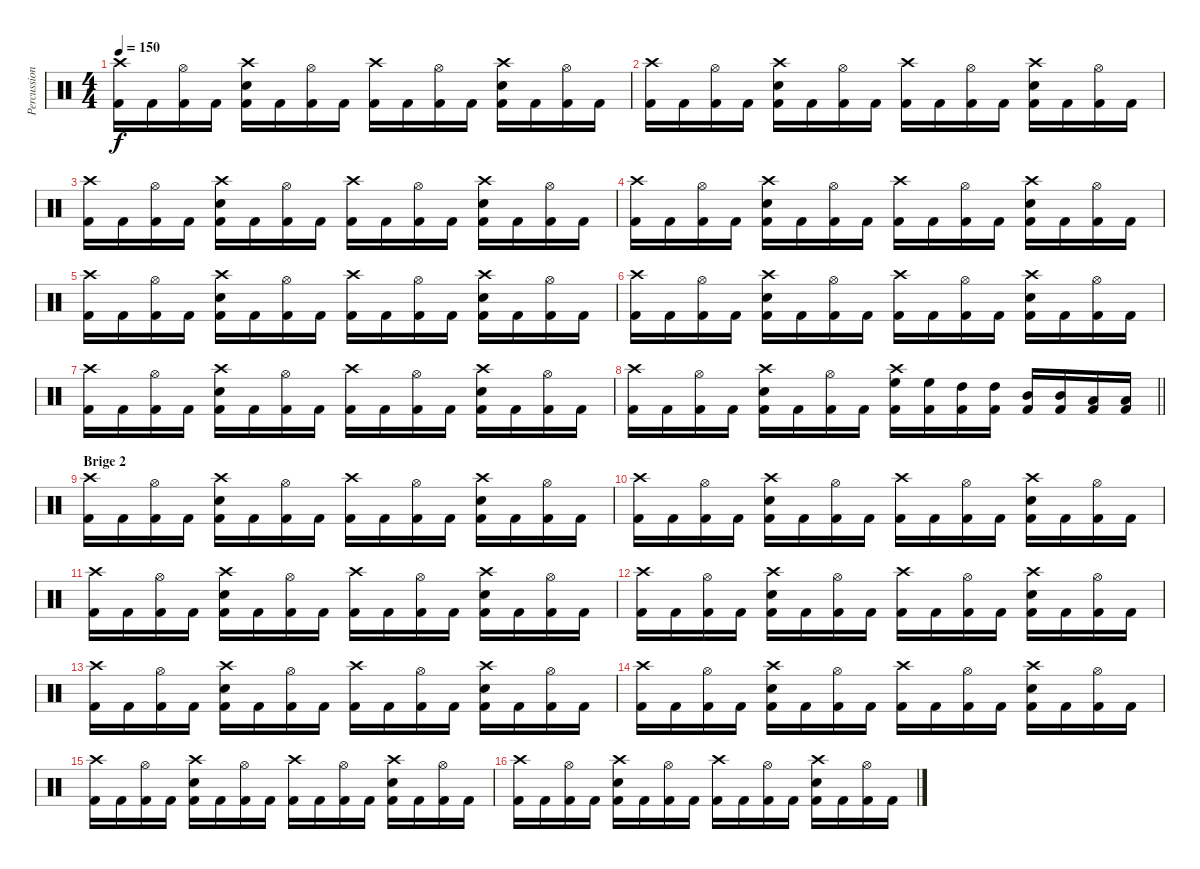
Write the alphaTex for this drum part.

\track ("Percussion" "Percussion") {instrument percussion}
\staff {score}
\articulation defaults
\ts (4 4)
\tempo 150
\clef neutral
\ks c
("Crash high (hit)" "Kick (hit) 2").16{dy f} "Kick (hit) 2".16 ("Hi-Hat (open)" "Kick (hit) 2").16 "Kick (hit) 2".16 ("Crash high (hit)" "Snare (hit) 2" "Kick (hit) 2").16 "Kick (hit) 2".16 ("Hi-Hat (open)" "Kick (hit) 2").16 "Kick (hit) 2".16 ("Crash high (hit)" "Kick (hit) 2").16 "Kick (hit) 2".16 ("Hi-Hat (open)" "Kick (hit) 2").16 "Kick (hit) 2".16 ("Crash high (hit)" "Snare (hit) 2" "Kick (hit) 2").16 "Kick (hit) 2".16 ("Hi-Hat (open)" "Kick (hit) 2").16 "Kick (hit) 2".16 |
("Crash high (hit)" "Kick (hit) 2").16 "Kick (hit) 2".16 ("Hi-Hat (open)" "Kick (hit) 2").16 "Kick (hit) 2".16 ("Crash high (hit)" "Snare (hit) 2" "Kick (hit) 2").16 "Kick (hit) 2".16 ("Hi-Hat (open)" "Kick (hit) 2").16 "Kick (hit) 2".16 ("Crash high (hit)" "Kick (hit) 2").16 "Kick (hit) 2".16 ("Hi-Hat (open)" "Kick (hit) 2").16 "Kick (hit) 2".16 ("Crash high (hit)" "Snare (hit) 2" "Kick (hit) 2").16 "Kick (hit) 2".16 ("Hi-Hat (open)" "Kick (hit) 2").16 "Kick (hit) 2".16 |
("Crash high (hit)" "Kick (hit) 2").16 "Kick (hit) 2".16 ("Hi-Hat (open)" "Kick (hit) 2").16 "Kick (hit) 2".16 ("Crash high (hit)" "Snare (hit) 2" "Kick (hit) 2").16 "Kick (hit) 2".16 ("Hi-Hat (open)" "Kick (hit) 2").16 "Kick (hit) 2".16 ("Crash high (hit)" "Kick (hit) 2").16 "Kick (hit) 2".16 ("Hi-Hat (open)" "Kick (hit) 2").16 "Kick (hit) 2".16 ("Crash high (hit)" "Snare (hit) 2" "Kick (hit) 2").16 "Kick (hit) 2".16 ("Hi-Hat (open)" "Kick (hit) 2").16 "Kick (hit) 2".16 |
("Crash high (hit)" "Kick (hit) 2").16 "Kick (hit) 2".16 ("Hi-Hat (open)" "Kick (hit) 2").16 "Kick (hit) 2".16 ("Crash high (hit)" "Snare (hit) 2" "Kick (hit) 2").16 "Kick (hit) 2".16 ("Hi-Hat (open)" "Kick (hit) 2").16 "Kick (hit) 2".16 ("Crash high (hit)" "Kick (hit) 2").16 "Kick (hit) 2".16 ("Hi-Hat (open)" "Kick (hit) 2").16 "Kick (hit) 2".16 ("Crash high (hit)" "Snare (hit) 2" "Kick (hit) 2").16 "Kick (hit) 2".16 ("Hi-Hat (open)" "Kick (hit) 2").16 "Kick (hit) 2".16 |
("Crash high (hit)" "Kick (hit) 2").16 "Kick (hit) 2".16 ("Hi-Hat (open)" "Kick (hit) 2").16 "Kick (hit) 2".16 ("Crash high (hit)" "Snare (hit) 2" "Kick (hit) 2").16 "Kick (hit) 2".16 ("Hi-Hat (open)" "Kick (hit) 2").16 "Kick (hit) 2".16 ("Crash high (hit)" "Kick (hit) 2").16 "Kick (hit) 2".16 ("Hi-Hat (open)" "Kick (hit) 2").16 "Kick (hit) 2".16 ("Crash high (hit)" "Snare (hit) 2" "Kick (hit) 2").16 "Kick (hit) 2".16 ("Hi-Hat (open)" "Kick (hit) 2").16 "Kick (hit) 2".16 |
("Crash high (hit)" "Kick (hit) 2").16 "Kick (hit) 2".16 ("Hi-Hat (open)" "Kick (hit) 2").16 "Kick (hit) 2".16 ("Crash high (hit)" "Snare (hit) 2" "Kick (hit) 2").16 "Kick (hit) 2".16 ("Hi-Hat (open)" "Kick (hit) 2").16 "Kick (hit) 2".16 ("Crash high (hit)" "Kick (hit) 2").16 "Kick (hit) 2".16 ("Hi-Hat (open)" "Kick (hit) 2").16 "Kick (hit) 2".16 ("Crash high (hit)" "Snare (hit) 2" "Kick (hit) 2").16 "Kick (hit) 2".16 ("Hi-Hat (open)" "Kick (hit) 2").16 "Kick (hit) 2".16 |
("Crash high (hit)" "Kick (hit) 2").16 "Kick (hit) 2".16 ("Hi-Hat (open)" "Kick (hit) 2").16 "Kick (hit) 2".16 ("Crash high (hit)" "Snare (hit) 2" "Kick (hit) 2").16 "Kick (hit) 2".16 ("Hi-Hat (open)" "Kick (hit) 2").16 "Kick (hit) 2".16 ("Crash high (hit)" "Kick (hit) 2").16 "Kick (hit) 2".16 ("Hi-Hat (open)" "Kick (hit) 2").16 "Kick (hit) 2".16 ("Crash high (hit)" "Snare (hit) 2" "Kick (hit) 2").16 "Kick (hit) 2".16 ("Hi-Hat (open)" "Kick (hit) 2").16 "Kick (hit) 2".16 |
\barLineRight lightlight
("Crash high (hit)" "Kick (hit) 2").16 "Kick (hit) 2".16 ("Hi-Hat (open)" "Kick (hit) 2").16 "Kick (hit) 2".16 ("Crash high (hit)" "Snare (hit) 2" "Kick (hit) 2").16 "Kick (hit) 2".16 ("Hi-Hat (open)" "Kick (hit) 2").16 "Kick (hit) 2".16 ("Crash high (hit)" "High Floor Tom (hit)" "Kick (hit) 2").16 ("High Floor Tom (hit)" "Kick (hit) 2").16 ("High Tom (hit)" "Kick (hit) 2").16 ("High Tom (hit)" "Kick (hit) 2").16 ("Mid Tom (hit)" "Kick (hit) 2").16 ("Mid Tom (hit)" "Kick (hit) 2").16 ("Low Tom (hit)" "Kick (hit) 2").16 ("Low Tom (hit)" "Kick (hit) 2").16 |
\section ("" "Brige 2")
("Crash high (hit)" "Kick (hit) 2").16 "Kick (hit) 2".16 ("Hi-Hat (open)" "Kick (hit) 2").16 "Kick (hit) 2".16 ("Crash high (hit)" "Snare (hit) 2" "Kick (hit) 2").16 "Kick (hit) 2".16 ("Hi-Hat (open)" "Kick (hit) 2").16 "Kick (hit) 2".16 ("Crash high (hit)" "Kick (hit) 2").16 "Kick (hit) 2".16 ("Hi-Hat (open)" "Kick (hit) 2").16 "Kick (hit) 2".16 ("Crash high (hit)" "Snare (hit) 2" "Kick (hit) 2").16 "Kick (hit) 2".16 ("Hi-Hat (open)" "Kick (hit) 2").16 "Kick (hit) 2".16 |
("Crash high (hit)" "Kick (hit) 2").16 "Kick (hit) 2".16 ("Hi-Hat (open)" "Kick (hit) 2").16 "Kick (hit) 2".16 ("Crash high (hit)" "Snare (hit) 2" "Kick (hit) 2").16 "Kick (hit) 2".16 ("Hi-Hat (open)" "Kick (hit) 2").16 "Kick (hit) 2".16 ("Crash high (hit)" "Kick (hit) 2").16 "Kick (hit) 2".16 ("Hi-Hat (open)" "Kick (hit) 2").16 "Kick (hit) 2".16 ("Crash high (hit)" "Snare (hit) 2" "Kick (hit) 2").16 "Kick (hit) 2".16 ("Hi-Hat (open)" "Kick (hit) 2").16 "Kick (hit) 2".16 |
("Crash high (hit)" "Kick (hit) 2").16 "Kick (hit) 2".16 ("Hi-Hat (open)" "Kick (hit) 2").16 "Kick (hit) 2".16 ("Crash high (hit)" "Snare (hit) 2" "Kick (hit) 2").16 "Kick (hit) 2".16 ("Hi-Hat (open)" "Kick (hit) 2").16 "Kick (hit) 2".16 ("Crash high (hit)" "Kick (hit) 2").16 "Kick (hit) 2".16 ("Hi-Hat (open)" "Kick (hit) 2").16 "Kick (hit) 2".16 ("Crash high (hit)" "Snare (hit) 2" "Kick (hit) 2").16 "Kick (hit) 2".16 ("Hi-Hat (open)" "Kick (hit) 2").16 "Kick (hit) 2".16 |
("Crash high (hit)" "Kick (hit) 2").16 "Kick (hit) 2".16 ("Hi-Hat (open)" "Kick (hit) 2").16 "Kick (hit) 2".16 ("Crash high (hit)" "Snare (hit) 2" "Kick (hit) 2").16 "Kick (hit) 2".16 ("Hi-Hat (open)" "Kick (hit) 2").16 "Kick (hit) 2".16 ("Crash high (hit)" "Kick (hit) 2").16 "Kick (hit) 2".16 ("Hi-Hat (open)" "Kick (hit) 2").16 "Kick (hit) 2".16 ("Crash high (hit)" "Snare (hit) 2" "Kick (hit) 2").16 "Kick (hit) 2".16 ("Hi-Hat (open)" "Kick (hit) 2").16 "Kick (hit) 2".16 |
("Crash high (hit)" "Kick (hit) 2").16 "Kick (hit) 2".16 ("Hi-Hat (open)" "Kick (hit) 2").16 "Kick (hit) 2".16 ("Crash high (hit)" "Snare (hit) 2" "Kick (hit) 2").16 "Kick (hit) 2".16 ("Hi-Hat (open)" "Kick (hit) 2").16 "Kick (hit) 2".16 ("Crash high (hit)" "Kick (hit) 2").16 "Kick (hit) 2".16 ("Hi-Hat (open)" "Kick (hit) 2").16 "Kick (hit) 2".16 ("Crash high (hit)" "Snare (hit) 2" "Kick (hit) 2").16 "Kick (hit) 2".16 ("Hi-Hat (open)" "Kick (hit) 2").16 "Kick (hit) 2".16 |
("Crash high (hit)" "Kick (hit) 2").16 "Kick (hit) 2".16 ("Hi-Hat (open)" "Kick (hit) 2").16 "Kick (hit) 2".16 ("Crash high (hit)" "Snare (hit) 2" "Kick (hit) 2").16 "Kick (hit) 2".16 ("Hi-Hat (open)" "Kick (hit) 2").16 "Kick (hit) 2".16 ("Crash high (hit)" "Kick (hit) 2").16 "Kick (hit) 2".16 ("Hi-Hat (open)" "Kick (hit) 2").16 "Kick (hit) 2".16 ("Crash high (hit)" "Snare (hit) 2" "Kick (hit) 2").16 "Kick (hit) 2".16 ("Hi-Hat (open)" "Kick (hit) 2").16 "Kick (hit) 2".16 |
("Crash high (hit)" "Kick (hit) 2").16 "Kick (hit) 2".16 ("Hi-Hat (open)" "Kick (hit) 2").16 "Kick (hit) 2".16 ("Crash high (hit)" "Snare (hit) 2" "Kick (hit) 2").16 "Kick (hit) 2".16 ("Hi-Hat (open)" "Kick (hit) 2").16 "Kick (hit) 2".16 ("Crash high (hit)" "Kick (hit) 2").16 "Kick (hit) 2".16 ("Hi-Hat (open)" "Kick (hit) 2").16 "Kick (hit) 2".16 ("Crash high (hit)" "Snare (hit) 2" "Kick (hit) 2").16 "Kick (hit) 2".16 ("Hi-Hat (open)" "Kick (hit) 2").16 "Kick (hit) 2".16 |
("Crash high (hit)" "Kick (hit) 2").16 "Kick (hit) 2".16 ("Hi-Hat (open)" "Kick (hit) 2").16 "Kick (hit) 2".16 ("Crash high (hit)" "Snare (hit) 2" "Kick (hit) 2").16 "Kick (hit) 2".16 ("Hi-Hat (open)" "Kick (hit) 2").16 "Kick (hit) 2".16 ("Crash high (hit)" "Kick (hit) 2").16 "Kick (hit) 2".16 ("Hi-Hat (open)" "Kick (hit) 2").16 "Kick (hit) 2".16 ("Crash high (hit)" "Snare (hit) 2" "Kick (hit) 2").16 "Kick (hit) 2".16 ("Hi-Hat (open)" "Kick (hit) 2").16 "Kick (hit) 2".16
